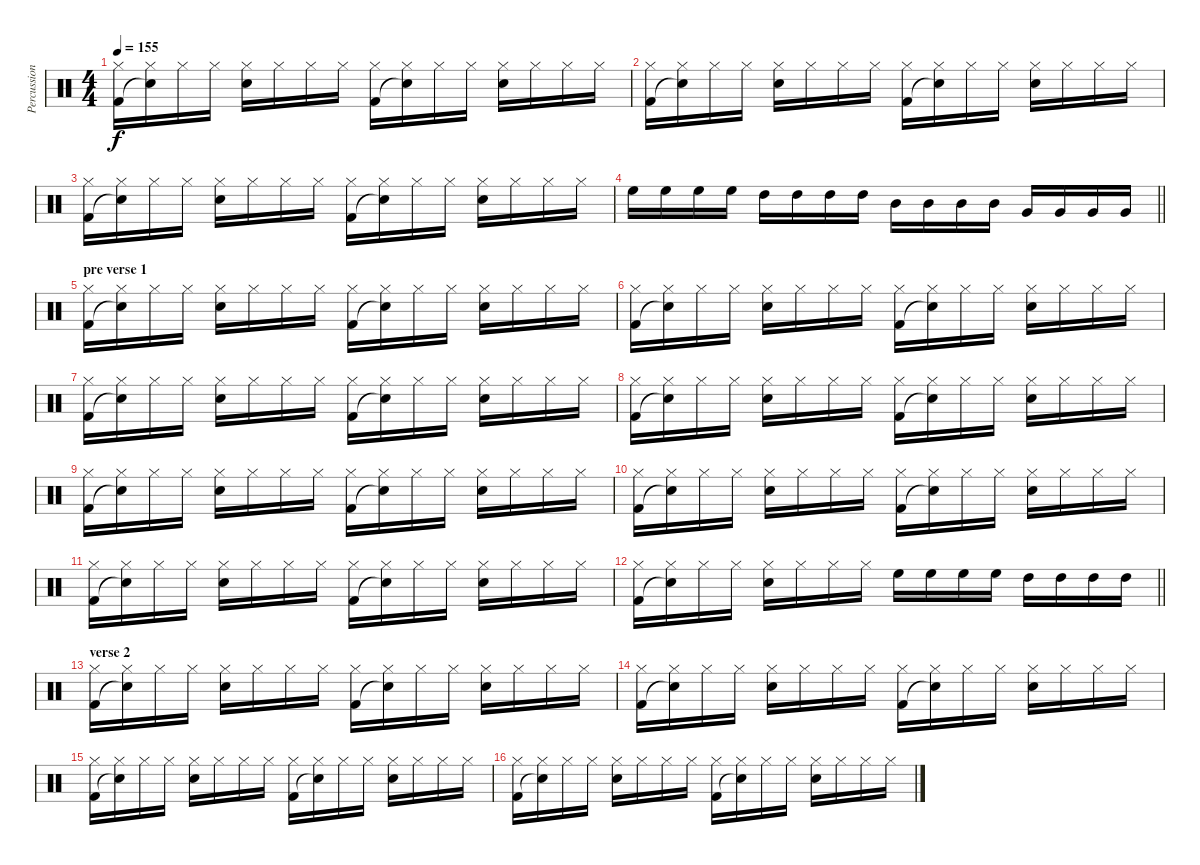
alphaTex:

\track ("Percussion" "Percussion") {instrument percussion}
\staff {score}
\articulation defaults
\ts (4 4)
\tempo 155
\clef neutral
\ks c
("Hi-Hat (closed)" "Kick (hit) 2").16{dy f} ("Hi-Hat (closed)" "Snare (hit)"{t}).16 "Hi-Hat (closed)".16 "Hi-Hat (closed)".16 ("Hi-Hat (closed)" "Snare (hit) 2").16 "Hi-Hat (closed)".16 "Hi-Hat (closed)".16 "Hi-Hat (closed)".16 ("Hi-Hat (closed)" "Kick (hit) 2").16 ("Hi-Hat (closed)" "Snare (hit)"{t}).16 "Hi-Hat (closed)".16 "Hi-Hat (closed)".16 ("Hi-Hat (closed)" "Snare (hit) 2").16 "Hi-Hat (closed)".16 "Hi-Hat (closed)".16 "Hi-Hat (closed)".16 |
("Hi-Hat (closed)" "Kick (hit) 2").16 ("Hi-Hat (closed)" "Snare (hit)"{t}).16 "Hi-Hat (closed)".16 "Hi-Hat (closed)".16 ("Hi-Hat (closed)" "Snare (hit) 2").16 "Hi-Hat (closed)".16 "Hi-Hat (closed)".16 "Hi-Hat (closed)".16 ("Hi-Hat (closed)" "Kick (hit) 2").16 ("Hi-Hat (closed)" "Snare (hit)"{t}).16 "Hi-Hat (closed)".16 "Hi-Hat (closed)".16 ("Hi-Hat (closed)" "Snare (hit) 2").16 "Hi-Hat (closed)".16 "Hi-Hat (closed)".16 "Hi-Hat (closed)".16 |
("Hi-Hat (closed)" "Kick (hit) 2").16 ("Hi-Hat (closed)" "Snare (hit)"{t}).16 "Hi-Hat (closed)".16 "Hi-Hat (closed)".16 ("Hi-Hat (closed)" "Snare (hit) 2").16 "Hi-Hat (closed)".16 "Hi-Hat (closed)".16 "Hi-Hat (closed)".16 ("Hi-Hat (closed)" "Kick (hit) 2").16 ("Hi-Hat (closed)" "Snare (hit)"{t}).16 "Hi-Hat (closed)".16 "Hi-Hat (closed)".16 ("Hi-Hat (closed)" "Snare (hit) 2").16 "Hi-Hat (closed)".16 "Hi-Hat (closed)".16 "Hi-Hat (closed)".16 |
\barLineRight lightlight "High Floor Tom (hit)".16 "High Floor Tom (hit)".16 "High Floor Tom (hit)".16 "High Floor Tom (hit)".16 "High Tom (hit)".16 "High Tom (hit)".16 "High Tom (hit)".16 "High Tom (hit)".16 "Mid Tom (hit)".16 "Mid Tom (hit)".16 "Mid Tom (hit)".16 "Mid Tom (hit)".16 "Very Low Tom (hit)".16 "Very Low Tom (hit)".16 "Very Low Tom (hit)".16 "Very Low Tom (hit)".16
|
\section ("" "pre verse 1")
("Hi-Hat (closed)" "Kick (hit) 2").16 ("Hi-Hat (closed)" "Snare (hit)"{t}).16 "Hi-Hat (closed)".16 "Hi-Hat (closed)".16 ("Hi-Hat (closed)" "Snare (hit) 2").16 "Hi-Hat (closed)".16 "Hi-Hat (closed)".16 "Hi-Hat (closed)".16 ("Hi-Hat (closed)" "Kick (hit) 2").16 ("Hi-Hat (closed)" "Snare (hit)"{t}).16 "Hi-Hat (closed)".16 "Hi-Hat (closed)".16 ("Hi-Hat (closed)" "Snare (hit) 2").16 "Hi-Hat (closed)".16 "Hi-Hat (closed)".16 "Hi-Hat (closed)".16 |
("Hi-Hat (closed)" "Kick (hit) 2").16 ("Hi-Hat (closed)" "Snare (hit)"{t}).16 "Hi-Hat (closed)".16 "Hi-Hat (closed)".16 ("Hi-Hat (closed)" "Snare (hit) 2").16 "Hi-Hat (closed)".16 "Hi-Hat (closed)".16 "Hi-Hat (closed)".16 ("Hi-Hat (closed)" "Kick (hit) 2").16 ("Hi-Hat (closed)" "Snare (hit)"{t}).16 "Hi-Hat (closed)".16 "Hi-Hat (closed)".16 ("Hi-Hat (closed)" "Snare (hit) 2").16 "Hi-Hat (closed)".16 "Hi-Hat (closed)".16 "Hi-Hat (closed)".16 |
("Hi-Hat (closed)" "Kick (hit) 2").16 ("Hi-Hat (closed)" "Snare (hit)"{t}).16 "Hi-Hat (closed)".16 "Hi-Hat (closed)".16 ("Hi-Hat (closed)" "Snare (hit) 2").16 "Hi-Hat (closed)".16 "Hi-Hat (closed)".16 "Hi-Hat (closed)".16 ("Hi-Hat (closed)" "Kick (hit) 2").16 ("Hi-Hat (closed)" "Snare (hit)"{t}).16 "Hi-Hat (closed)".16 "Hi-Hat (closed)".16 ("Hi-Hat (closed)" "Snare (hit) 2").16 "Hi-Hat (closed)".16 "Hi-Hat (closed)".16 "Hi-Hat (closed)".16 |
("Hi-Hat (closed)" "Kick (hit) 2").16 ("Hi-Hat (closed)" "Snare (hit)"{t}).16 "Hi-Hat (closed)".16 "Hi-Hat (closed)".16 ("Hi-Hat (closed)" "Snare (hit) 2").16 "Hi-Hat (closed)".16 "Hi-Hat (closed)".16 "Hi-Hat (closed)".16 ("Hi-Hat (closed)" "Kick (hit) 2").16 ("Hi-Hat (closed)" "Snare (hit)"{t}).16 "Hi-Hat (closed)".16 "Hi-Hat (closed)".16 ("Hi-Hat (closed)" "Snare (hit) 2").16 "Hi-Hat (closed)".16 "Hi-Hat (closed)".16 "Hi-Hat (closed)".16 |
("Hi-Hat (closed)" "Kick (hit) 2").16 ("Hi-Hat (closed)" "Snare (hit)"{t}).16 "Hi-Hat (closed)".16 "Hi-Hat (closed)".16 ("Hi-Hat (closed)" "Snare (hit) 2").16 "Hi-Hat (closed)".16 "Hi-Hat (closed)".16 "Hi-Hat (closed)".16 ("Hi-Hat (closed)" "Kick (hit) 2").16 ("Hi-Hat (closed)" "Snare (hit)"{t}).16 "Hi-Hat (closed)".16 "Hi-Hat (closed)".16 ("Hi-Hat (closed)" "Snare (hit) 2").16 "Hi-Hat (closed)".16 "Hi-Hat (closed)".16 "Hi-Hat (closed)".16 |
("Hi-Hat (closed)" "Kick (hit) 2").16 ("Hi-Hat (closed)" "Snare (hit)"{t}).16 "Hi-Hat (closed)".16 "Hi-Hat (closed)".16 ("Hi-Hat (closed)" "Snare (hit) 2").16 "Hi-Hat (closed)".16 "Hi-Hat (closed)".16 "Hi-Hat (closed)".16 ("Hi-Hat (closed)" "Kick (hit) 2").16 ("Hi-Hat (closed)" "Snare (hit)"{t}).16 "Hi-Hat (closed)".16 "Hi-Hat (closed)".16 ("Hi-Hat (closed)" "Snare (hit) 2").16 "Hi-Hat (closed)".16 "Hi-Hat (closed)".16 "Hi-Hat (closed)".16 |
("Hi-Hat (closed)" "Kick (hit) 2").16 ("Hi-Hat (closed)" "Snare (hit)"{t}).16 "Hi-Hat (closed)".16 "Hi-Hat (closed)".16 ("Hi-Hat (closed)" "Snare (hit) 2").16 "Hi-Hat (closed)".16 "Hi-Hat (closed)".16 "Hi-Hat (closed)".16 ("Hi-Hat (closed)" "Kick (hit) 2").16 ("Hi-Hat (closed)" "Snare (hit)"{t}).16 "Hi-Hat (closed)".16 "Hi-Hat (closed)".16 ("Hi-Hat (closed)" "Snare (hit) 2").16 "Hi-Hat (closed)".16 "Hi-Hat (closed)".16 "Hi-Hat (closed)".16 |
\barLineRight lightlight
("Hi-Hat (closed)" "Kick (hit) 2").16 ("Hi-Hat (closed)" "Snare (hit)"{t}).16 "Hi-Hat (closed)".16 "Hi-Hat (closed)".16 ("Hi-Hat (closed)" "Snare (hit) 2").16 "Hi-Hat (closed)".16 "Hi-Hat (closed)".16 "Hi-Hat (closed)".16 "High Floor Tom (hit)".16 "High Floor Tom (hit)".16 "High Floor Tom (hit)".16 "High Floor Tom (hit)".16 "High Tom (hit)".16 "High Tom (hit)".16 "High Tom (hit)".16 "High Tom (hit)".16 |
\section ("" "verse 2")
("Hi-Hat (closed)" "Kick (hit) 2").16 ("Hi-Hat (closed)" "Snare (hit)"{t}).16 "Hi-Hat (closed)".16 "Hi-Hat (closed)".16 ("Hi-Hat (closed)" "Snare (hit) 2").16 "Hi-Hat (closed)".16 "Hi-Hat (closed)".16 "Hi-Hat (closed)".16 ("Hi-Hat (closed)" "Kick (hit) 2").16 ("Hi-Hat (closed)" "Snare (hit)"{t}).16 "Hi-Hat (closed)".16 "Hi-Hat (closed)".16 ("Hi-Hat (closed)" "Snare (hit) 2").16 "Hi-Hat (closed)".16 "Hi-Hat (closed)".16 "Hi-Hat (closed)".16 |
("Hi-Hat (closed)" "Kick (hit) 2").16 ("Hi-Hat (closed)" "Snare (hit)"{t}).16 "Hi-Hat (closed)".16 "Hi-Hat (closed)".16 ("Hi-Hat (closed)" "Snare (hit) 2").16 "Hi-Hat (closed)".16 "Hi-Hat (closed)".16 "Hi-Hat (closed)".16 ("Hi-Hat (closed)" "Kick (hit) 2").16 ("Hi-Hat (closed)" "Snare (hit)"{t}).16 "Hi-Hat (closed)".16 "Hi-Hat (closed)".16 ("Hi-Hat (closed)" "Snare (hit) 2").16 "Hi-Hat (closed)".16 "Hi-Hat (closed)".16 "Hi-Hat (closed)".16 |
("Hi-Hat (closed)" "Kick (hit) 2").16 ("Hi-Hat (closed)" "Snare (hit)"{t}).16 "Hi-Hat (closed)".16 "Hi-Hat (closed)".16 ("Hi-Hat (closed)" "Snare (hit) 2").16 "Hi-Hat (closed)".16 "Hi-Hat (closed)".16 "Hi-Hat (closed)".16 ("Hi-Hat (closed)" "Kick (hit) 2").16 ("Hi-Hat (closed)" "Snare (hit)"{t}).16 "Hi-Hat (closed)".16 "Hi-Hat (closed)".16 ("Hi-Hat (closed)" "Snare (hit) 2").16 "Hi-Hat (closed)".16 "Hi-Hat (closed)".16 "Hi-Hat (closed)".16 |
("Hi-Hat (closed)" "Kick (hit) 2").16 ("Hi-Hat (closed)" "Snare (hit)"{t}).16 "Hi-Hat (closed)".16 "Hi-Hat (closed)".16 ("Hi-Hat (closed)" "Snare (hit) 2").16 "Hi-Hat (closed)".16 "Hi-Hat (closed)".16 "Hi-Hat (closed)".16 ("Hi-Hat (closed)" "Kick (hit) 2").16 ("Hi-Hat (closed)" "Snare (hit)"{t}).16 "Hi-Hat (closed)".16 "Hi-Hat (closed)".16 ("Hi-Hat (closed)" "Snare (hit) 2").16 "Hi-Hat (closed)".16 "Hi-Hat (closed)".16 "Hi-Hat (closed)".16
